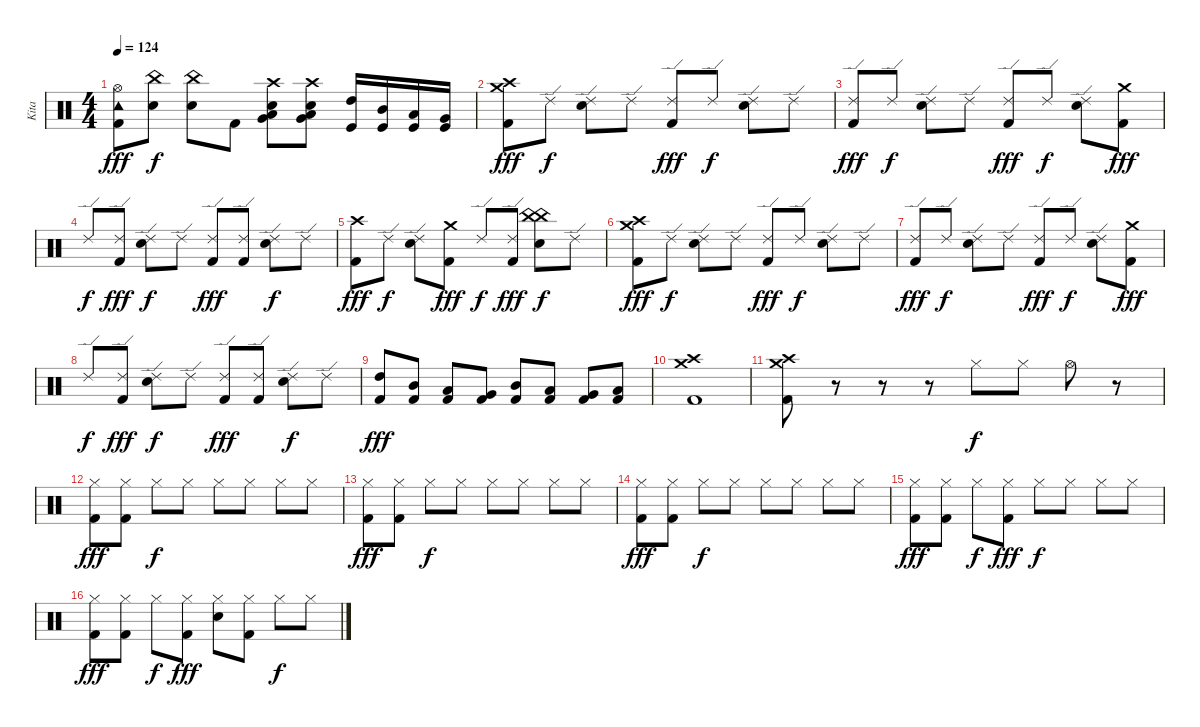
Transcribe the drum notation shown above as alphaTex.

\track ("Kita" "Kita") {instrument percussion}
\staff {score}
\articulation defaults
\ts (4 4)
\tempo 124
\clef neutral
\ks c
("Hi-Hat (open)" "Kick (hit) 2" "Tambourine (hit)").8{dy fff} ("Electric Snare (hit)" "China (hit)").8{dy f} ("Electric Snare (hit)" "China (hit)").8 "Kick (hit) 2".8 ("Electric Snare (hit)" "Low Tom (hit)" "Very Low Tom (hit)" "Crash high (hit)").8 ("Electric Snare (hit)" "Low Tom (hit)" "Very Low Tom (hit)" "Crash high (hit)").8 ("High Tom (hit)" "Kick (hit)").16 ("Mid Tom (hit)" "Kick (hit)").16 ("Low Tom (hit)" "Kick (hit)").16 ("Very Low Tom (hit)" "Kick (hit)").16 |
("Crash high (hit)" "Kick (hit) 2" "Crash medium (hit)").8{dy fff} "Ride (edge) 2".8{dy f} ("Ride (edge) 2" "Electric Snare (hit)").8 "Ride (edge) 2".8 ("Ride (edge) 2" "Kick (hit) 2").8{dy fff} "Ride (edge) 2".8{dy f} ("Ride (edge) 2" "Electric Snare (hit)").8 "Ride (edge) 2".8 |
("Ride (edge) 2" "Kick (hit) 2").8{dy fff} "Ride (edge) 2".8{dy f} ("Ride (edge) 2" "Electric Snare (hit)").8 "Ride (edge) 2".8 ("Ride (edge) 2" "Kick (hit) 2").8{dy fff} "Ride (edge) 2".8{dy f} ("Ride (edge) 2" "Electric Snare (hit)").8 ("Crash medium (hit)" "Kick (hit) 2").8{dy fff} |
"Ride (edge) 2".8{dy f} ("Ride (edge) 2" "Kick (hit) 2").8{dy fff} ("Ride (edge) 2" "Electric Snare (hit)").8{dy f} "Ride (edge) 2".8 ("Ride (edge) 2" "Kick (hit) 2").8{dy fff} ("Ride (edge) 2" "Kick (hit) 2").8 ("Ride (edge) 2" "Electric Snare (hit)").8{dy f} "Ride (edge) 2".8 |
("Crash high (hit)" "Kick (hit) 2").8{dy fff} "Ride (edge) 2".8{dy f} ("Ride (edge) 2" "Electric Snare (hit)").8 ("Crash medium (hit)" "Kick (hit) 2").8{dy fff} "Ride (edge) 2".8{dy f} ("Ride (edge) 2" "Kick (hit) 2").8{dy fff} ("China (hit)" "Electric Snare (hit)" "China (hit)").8{dy f} "Ride (edge) 2".8 |
("Crash high (hit)" "Kick (hit) 2" "Crash medium (hit)").8{dy fff} "Ride (edge) 2".8{dy f} ("Ride (edge) 2" "Electric Snare (hit)").8 "Ride (edge) 2".8 ("Ride (edge) 2" "Kick (hit) 2").8{dy fff} "Ride (edge) 2".8{dy f} ("Ride (edge) 2" "Electric Snare (hit)").8 "Ride (edge) 2".8 |
("Ride (edge) 2" "Kick (hit) 2").8{dy fff} "Ride (edge) 2".8{dy f} ("Ride (edge) 2" "Electric Snare (hit)").8 "Ride (edge) 2".8 ("Ride (edge) 2" "Kick (hit) 2").8{dy fff} "Ride (edge) 2".8{dy f} ("Ride (edge) 2" "Electric Snare (hit)").8 ("Crash medium (hit)" "Kick (hit) 2").8{dy fff} |
"Ride (edge) 2".8{dy f} ("Ride (edge) 2" "Kick (hit) 2").8{dy fff} ("Ride (edge) 2" "Electric Snare (hit)").8{dy f} "Ride (edge) 2".8 ("Ride (edge) 2" "Kick (hit) 2").8{dy fff} ("Ride (edge) 2" "Kick (hit) 2").8 ("Ride (edge) 2" "Electric Snare (hit)").8{dy f} "Ride (edge) 2".8 |
("High Tom (hit)" "Kick (hit) 2").8{dy fff} ("Mid Tom (hit)" "Kick (hit) 2").8 ("Low Tom (hit)" "Kick (hit) 2").8 ("Very Low Tom (hit)" "Kick (hit) 2").8 ("Mid Tom (hit)" "Kick (hit) 2").8 ("Low Tom (hit)" "Kick (hit) 2").8 ("Very Low Tom (hit)" "Kick (hit) 2").8 ("Low Floor Tom (hit)" "Kick (hit) 2").8 |
("Crash high (hit)" "Kick (hit) 2" "Crash medium (hit)").1 |
("Crash high (hit)" "Kick (hit) 2" "Crash medium (hit)").8 r.8 r.8 r.8 "Hi-Hat (closed)".8{dy f} "Hi-Hat (closed)".8 "Hi-Hat (open)".8 r.8 |
("Hi-Hat (closed)" "Kick (hit) 2").8{dy fff} ("Hi-Hat (closed)" "Kick (hit) 2").8 "Hi-Hat (closed)".8{dy f} "Hi-Hat (closed)".8 "Hi-Hat (closed)".8 "Hi-Hat (closed)".8 "Hi-Hat (closed)".8 "Hi-Hat (closed)".8 |
("Hi-Hat (closed)" "Kick (hit) 2").8{dy fff} ("Hi-Hat (closed)" "Kick (hit) 2").8 "Hi-Hat (closed)".8{dy f} "Hi-Hat (closed)".8 "Hi-Hat (closed)".8 "Hi-Hat (closed)".8 "Hi-Hat (closed)".8 "Hi-Hat (closed)".8 |
("Hi-Hat (closed)" "Kick (hit) 2").8{dy fff} ("Hi-Hat (closed)" "Kick (hit) 2").8 "Hi-Hat (closed)".8{dy f} "Hi-Hat (closed)".8 "Hi-Hat (closed)".8 "Hi-Hat (closed)".8 "Hi-Hat (closed)".8 "Hi-Hat (closed)".8 |
("Hi-Hat (closed)" "Kick (hit) 2").8{dy fff} ("Hi-Hat (closed)" "Kick (hit) 2").8 "Hi-Hat (closed)".8{dy f} ("Hi-Hat (closed)" "Kick (hit) 2").8{dy fff} "Hi-Hat (closed)".8{dy f} "Hi-Hat (closed)".8 "Hi-Hat (closed)".8 "Hi-Hat (closed)".8 |
("Hi-Hat (closed)" "Kick (hit) 2").8{dy fff} ("Hi-Hat (closed)" "Kick (hit) 2").8 "Hi-Hat (closed)".8{dy f} ("Hi-Hat (closed)" "Kick (hit) 2").8{dy fff} ("Hi-Hat (closed)" "Electric Snare (hit)").8 ("Hi-Hat (closed)" "Kick (hit) 2").8 "Hi-Hat (closed)".8{dy f} "Hi-Hat (closed)".8
